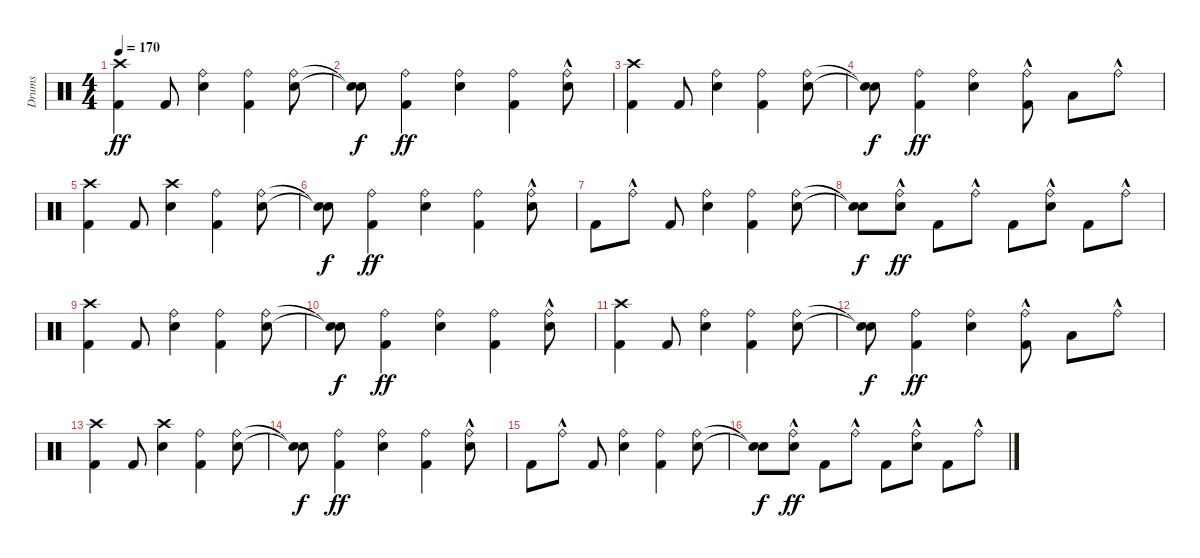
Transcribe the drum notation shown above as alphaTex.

\track ("Drums" "Drums") {instrument percussion}
\staff {score}
\articulation defaults
\ts (4 4)
\tempo 170
\clef neutral
\ks c
("Kick (hit) 2" "Crash high (hit)").4{dy ff} "Kick (hit) 2".8 ("Snare (hit) 2" "Ride (bell)").4 ("Kick (hit) 2" "Ride (bell)").4 ("Snare (hit) 2" "Ride (bell)").8 |
("Snare (hit)"{t} "Snare (hit)"{t}).8{dy f} ("Kick (hit) 2" "Ride (bell)").4{dy ff} ("Snare (hit) 2" "Ride (bell)").4 ("Kick (hit) 2" "Ride (bell)").4 ("Snare (hit) 2" "Ride (bell)"{hac}).8 |
("Kick (hit) 2" "Crash high (hit)").4 "Kick (hit) 2".8 ("Snare (hit) 2" "Ride (bell)").4 ("Kick (hit) 2" "Ride (bell)").4 ("Snare (hit) 2" "Ride (bell)").8 |
("Snare (hit)"{t} "Snare (hit)"{t}).8{dy f} ("Kick (hit) 2" "Ride (bell)").4{dy ff} ("Snare (hit) 2" "Ride (bell)").4 ("Kick (hit) 2" "Ride (bell)"{hac}).8 "Low Floor Tom (hit)".8 "Ride (bell)"{hac}.8 |
("Kick (hit) 2" "Crash high (hit)").4 "Kick (hit) 2".8 ("Snare (hit) 2" "Crash high (hit)").4 ("Kick (hit) 2" "Ride (bell)").4 ("Snare (hit) 2" "Ride (bell)").8 |
("Snare (hit)"{t} "Snare (hit)"{t}).8{dy f} ("Kick (hit) 2" "Ride (bell)").4{dy ff} ("Snare (hit) 2" "Ride (bell)").4 ("Kick (hit) 2" "Ride (bell)").4 ("Snare (hit) 2" "Ride (bell)"{hac}).8 |
"Kick (hit) 2".8 "Ride (bell)"{hac}.8 "Kick (hit) 2".8 ("Snare (hit) 2" "Ride (bell)").4 ("Kick (hit) 2" "Ride (bell)").4 ("Snare (hit) 2" "Ride (bell)").8 |
("Snare (hit)"{t} "Snare (hit)"{t}).8{dy f} ("Snare (hit) 2" "Ride (bell)"{hac}).8{dy ff} "Kick (hit) 2".8 "Ride (bell)"{hac}.8 "Kick (hit) 2".8 ("Snare (hit) 2" "Ride (bell)"{hac}).8 "Kick (hit) 2".8 "Ride (bell)"{hac}.8 |
("Kick (hit) 2" "Crash high (hit)").4 "Kick (hit) 2".8 ("Snare (hit) 2" "Ride (bell)").4 ("Kick (hit) 2" "Ride (bell)").4 ("Snare (hit) 2" "Ride (bell)").8 |
("Snare (hit)"{t} "Snare (hit)"{t}).8{dy f} ("Kick (hit) 2" "Ride (bell)").4{dy ff} ("Snare (hit) 2" "Ride (bell)").4 ("Kick (hit) 2" "Ride (bell)").4 ("Snare (hit) 2" "Ride (bell)"{hac}).8 |
("Kick (hit) 2" "Crash high (hit)").4 "Kick (hit) 2".8 ("Snare (hit) 2" "Ride (bell)").4 ("Kick (hit) 2" "Ride (bell)").4 ("Snare (hit) 2" "Ride (bell)").8 |
("Snare (hit)"{t} "Snare (hit)"{t}).8{dy f} ("Kick (hit) 2" "Ride (bell)").4{dy ff} ("Snare (hit) 2" "Ride (bell)").4 ("Kick (hit) 2" "Ride (bell)"{hac}).8 "Low Floor Tom (hit)".8 "Ride (bell)"{hac}.8 |
("Kick (hit) 2" "Crash high (hit)").4 "Kick (hit) 2".8 ("Snare (hit) 2" "Crash high (hit)").4 ("Kick (hit) 2" "Ride (bell)").4 ("Snare (hit) 2" "Ride (bell)").8 |
("Snare (hit)"{t} "Snare (hit)"{t}).8{dy f} ("Kick (hit) 2" "Ride (bell)").4{dy ff} ("Snare (hit) 2" "Ride (bell)").4 ("Kick (hit) 2" "Ride (bell)").4 ("Snare (hit) 2" "Ride (bell)"{hac}).8 |
"Kick (hit) 2".8 "Ride (bell)"{hac}.8 "Kick (hit) 2".8 ("Snare (hit) 2" "Ride (bell)").4 ("Kick (hit) 2" "Ride (bell)").4 ("Snare (hit) 2" "Ride (bell)").8 |
("Snare (hit)"{t} "Snare (hit)"{t}).8{dy f} ("Snare (hit) 2" "Ride (bell)"{hac}).8{dy ff} "Kick (hit) 2".8 "Ride (bell)"{hac}.8 "Kick (hit) 2".8 ("Snare (hit) 2" "Ride (bell)"{hac}).8 "Kick (hit) 2".8 "Ride (bell)"{hac}.8
